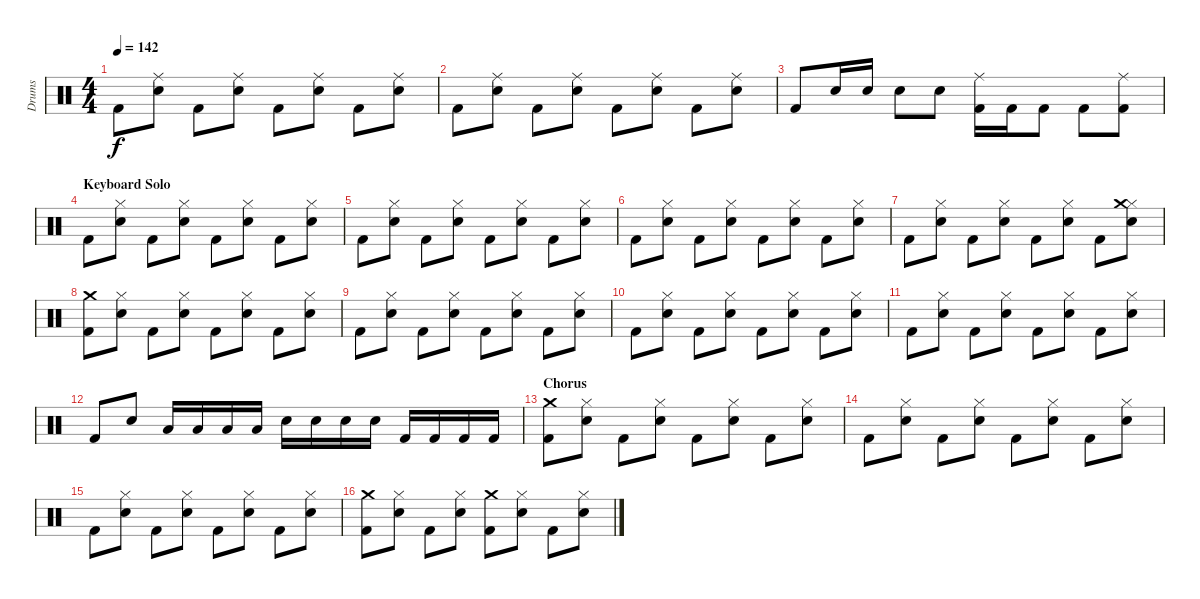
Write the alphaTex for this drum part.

\track ("Drums" "Drums") {instrument percussion}
\staff {score}
\articulation defaults
\ts (4 4)
\tempo 142
\clef neutral
\ks c "Kick (hit) 2".8{dy f}
("Snare (hit) 2" "Ride (middle)").8 "Kick (hit) 2".8 ("Snare (hit) 2" "Ride (middle)").8 "Kick (hit) 2".8 ("Snare (hit) 2" "Ride (middle)").8 "Kick (hit) 2".8 ("Snare (hit) 2" "Ride (middle)").8 |
"Kick (hit) 2".8 ("Snare (hit) 2" "Ride (middle)").8 "Kick (hit) 2".8 ("Snare (hit) 2" "Ride (middle)").8 "Kick (hit) 2".8 ("Snare (hit) 2" "Ride (middle)").8 "Kick (hit) 2".8 ("Snare (hit) 2" "Ride (middle)").8 |
"Kick (hit) 2".8 "Snare (hit) 2".16 "Snare (hit) 2".16 "Snare (hit) 2".8 "Snare (hit) 2".8 ("Kick (hit) 2" "Ride (middle)").16 "Kick (hit) 2".16 "Kick (hit) 2".8 "Kick (hit) 2".8 ("Kick (hit) 2" "Ride (middle)").8 |
\section ("" "Keyboard Solo")
"Kick (hit) 2".8 ("Snare (hit) 2" "Hi-Hat (closed)").8 "Kick (hit) 2".8 ("Snare (hit) 2" "Hi-Hat (closed)").8 "Kick (hit) 2".8 ("Snare (hit) 2" "Hi-Hat (closed)").8 "Kick (hit) 2".8 ("Snare (hit) 2" "Hi-Hat (closed)").8 |
"Kick (hit) 2".8 ("Snare (hit) 2" "Hi-Hat (closed)").8 "Kick (hit) 2".8 ("Snare (hit) 2" "Hi-Hat (closed)").8 "Kick (hit) 2".8 ("Snare (hit) 2" "Hi-Hat (closed)").8 "Kick (hit) 2".8 ("Snare (hit) 2" "Hi-Hat (closed)").8 |
"Kick (hit) 2".8 ("Snare (hit) 2" "Hi-Hat (closed)").8 "Kick (hit) 2".8 ("Snare (hit) 2" "Hi-Hat (closed)").8 "Kick (hit) 2".8 ("Snare (hit) 2" "Hi-Hat (closed)").8 "Kick (hit) 2".8 ("Snare (hit) 2" "Hi-Hat (closed)").8 |
"Kick (hit) 2".8 ("Snare (hit) 2" "Hi-Hat (closed)").8 "Kick (hit) 2".8 ("Snare (hit) 2" "Hi-Hat (closed)").8 "Kick (hit) 2".8 ("Snare (hit) 2" "Hi-Hat (closed)").8 "Kick (hit) 2".8 ("Snare (hit) 2" "Hi-Hat (closed)" "Crash medium (hit)").8 |
("Kick (hit) 2" "Crash medium (hit)").8 ("Snare (hit) 2" "Hi-Hat (closed)").8 "Kick (hit) 2".8 ("Snare (hit) 2" "Hi-Hat (closed)").8 "Kick (hit) 2".8 ("Snare (hit) 2" "Hi-Hat (closed)").8 "Kick (hit) 2".8 ("Snare (hit) 2" "Hi-Hat (closed)").8 |
"Kick (hit) 2".8 ("Snare (hit) 2" "Hi-Hat (closed)").8 "Kick (hit) 2".8 ("Snare (hit) 2" "Hi-Hat (closed)").8 "Kick (hit) 2".8 ("Snare (hit) 2" "Hi-Hat (closed)").8 "Kick (hit) 2".8 ("Snare (hit) 2" "Hi-Hat (closed)").8 |
"Kick (hit) 2".8 ("Snare (hit) 2" "Hi-Hat (closed)").8 "Kick (hit) 2".8 ("Snare (hit) 2" "Hi-Hat (closed)").8 "Kick (hit) 2".8 ("Snare (hit) 2" "Hi-Hat (closed)").8 "Kick (hit) 2".8 ("Snare (hit) 2" "Hi-Hat (closed)").8 |
"Kick (hit) 2".8 ("Snare (hit) 2" "Hi-Hat (closed)").8 "Kick (hit) 2".8 ("Snare (hit) 2" "Hi-Hat (closed)").8 "Kick (hit) 2".8 ("Snare (hit) 2" "Hi-Hat (closed)").8 "Kick (hit) 2".8 ("Snare (hit) 2" "Hi-Hat (closed)").8 |
"Kick (hit) 2".8 "Snare (hit) 2".8 "Low Floor Tom (hit)".16 "Low Floor Tom (hit)".16 "Low Floor Tom (hit)".16 "Low Floor Tom (hit)".16 "Snare (hit) 2".16 "Snare (hit) 2".16 "Snare (hit) 2".16 "Snare (hit) 2".16 "Kick (hit) 2".16 "Kick (hit) 2".16 "Kick (hit) 2".16 "Kick (hit) 2".16 |
\section ("" "Chorus")
("Kick (hit) 2" "Crash medium (hit)").8 ("Snare (hit) 2" "Hi-Hat (closed)").8 "Kick (hit) 2".8 ("Snare (hit) 2" "Hi-Hat (closed)").8 "Kick (hit) 2".8 ("Snare (hit) 2" "Hi-Hat (closed)").8 "Kick (hit) 2".8 ("Snare (hit) 2" "Hi-Hat (closed)").8 |
"Kick (hit) 2".8 ("Snare (hit) 2" "Hi-Hat (closed)").8 "Kick (hit) 2".8 ("Snare (hit) 2" "Hi-Hat (closed)").8 "Kick (hit) 2".8 ("Snare (hit) 2" "Hi-Hat (closed)").8 "Kick (hit) 2".8 ("Snare (hit) 2" "Hi-Hat (closed)").8 |
"Kick (hit) 2".8 ("Snare (hit) 2" "Hi-Hat (closed)").8 "Kick (hit) 2".8 ("Snare (hit) 2" "Hi-Hat (closed)").8 "Kick (hit) 2".8 ("Snare (hit) 2" "Hi-Hat (closed)").8 "Kick (hit) 2".8 ("Snare (hit) 2" "Hi-Hat (closed)").8 |
("Kick (hit) 2" "Crash medium (hit)").8 ("Snare (hit) 2" "Hi-Hat (closed)").8 "Kick (hit) 2".8 ("Snare (hit) 2" "Hi-Hat (closed)").8 ("Kick (hit) 2" "Crash medium (hit)").8 ("Snare (hit) 2" "Hi-Hat (closed)").8 "Kick (hit) 2".8 ("Snare (hit) 2" "Hi-Hat (closed)").8
